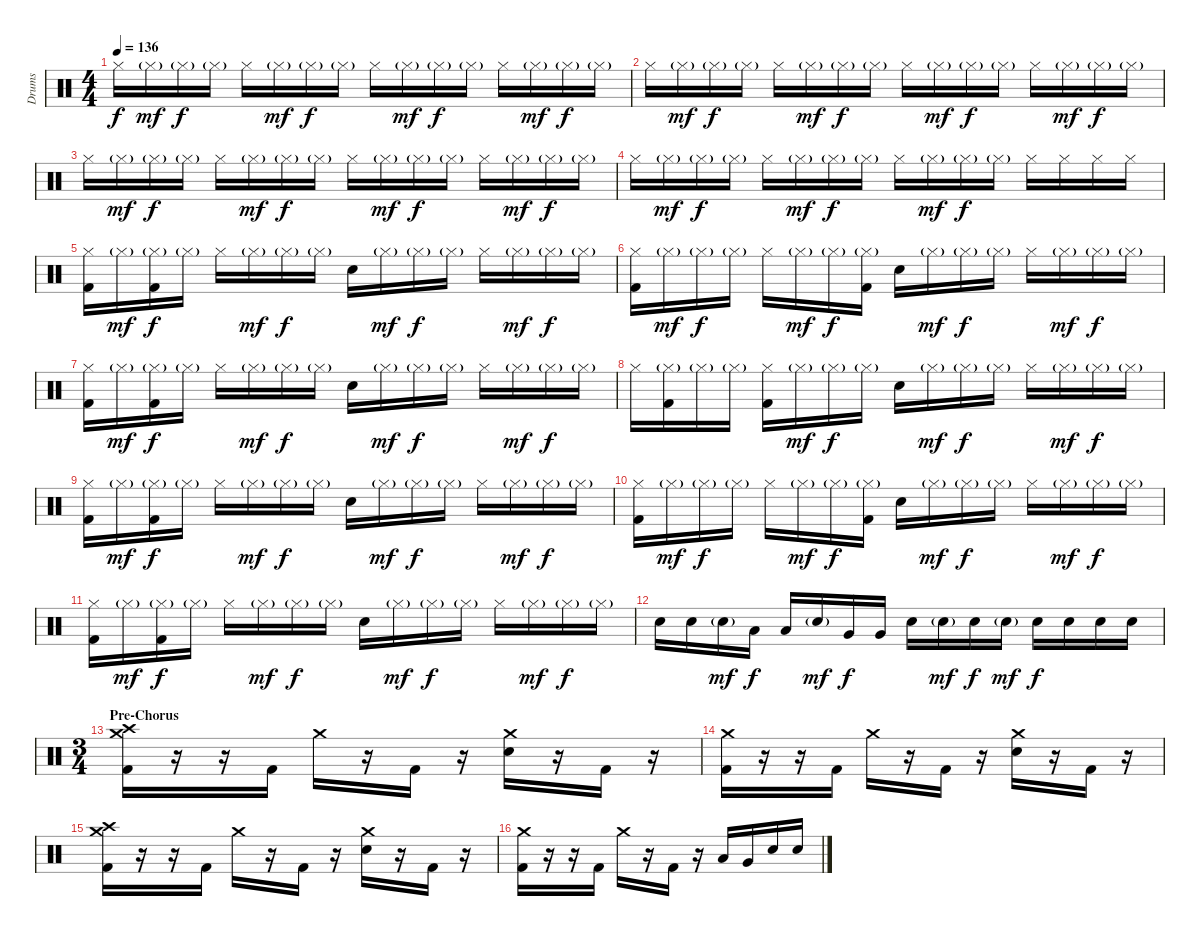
\track ("Drums" "Drums") {instrument percussion}
\staff {score}
\articulation defaults
\ts (4 4)
\tempo 136
\clef neutral
\ks c "Hi-Hat (closed)".16{dy f} "Hi-Hat (closed)"{g}.16{dy mf} "Hi-Hat (closed)"{g}.16{dy f} "Hi-Hat (closed)"{g}.16 "Hi-Hat (closed)".16 "Hi-Hat (closed)"{g}.16{dy mf} "Hi-Hat (closed)"{g}.16{dy f} "Hi-Hat (closed)"{g}.16 "Hi-Hat (closed)".16 "Hi-Hat (closed)"{g}.16{dy mf} "Hi-Hat (closed)"{g}.16{dy f} "Hi-Hat (closed)"{g}.16 "Hi-Hat (closed)".16 "Hi-Hat (closed)"{g}.16{dy mf} "Hi-Hat (closed)"{g}.16{dy f} "Hi-Hat (closed)"{g}.16
|
"Hi-Hat (closed)".16 "Hi-Hat (closed)"{g}.16{dy mf} "Hi-Hat (closed)"{g}.16{dy f} "Hi-Hat (closed)"{g}.16 "Hi-Hat (closed)".16 "Hi-Hat (closed)"{g}.16{dy mf} "Hi-Hat (closed)"{g}.16{dy f} "Hi-Hat (closed)"{g}.16 "Hi-Hat (closed)".16 "Hi-Hat (closed)"{g}.16{dy mf} "Hi-Hat (closed)"{g}.16{dy f} "Hi-Hat (closed)"{g}.16 "Hi-Hat (closed)".16 "Hi-Hat (closed)"{g}.16{dy mf} "Hi-Hat (closed)"{g}.16{dy f} "Hi-Hat (closed)"{g}.16 |
"Hi-Hat (closed)".16 "Hi-Hat (closed)"{g}.16{dy mf} "Hi-Hat (closed)"{g}.16{dy f} "Hi-Hat (closed)"{g}.16 "Hi-Hat (closed)".16 "Hi-Hat (closed)"{g}.16{dy mf} "Hi-Hat (closed)"{g}.16{dy f} "Hi-Hat (closed)"{g}.16 "Hi-Hat (closed)".16 "Hi-Hat (closed)"{g}.16{dy mf} "Hi-Hat (closed)"{g}.16{dy f} "Hi-Hat (closed)"{g}.16 "Hi-Hat (closed)".16 "Hi-Hat (closed)"{g}.16{dy mf} "Hi-Hat (closed)"{g}.16{dy f} "Hi-Hat (closed)"{g}.16 |
"Hi-Hat (closed)".16 "Hi-Hat (closed)"{g}.16{dy mf} "Hi-Hat (closed)"{g}.16{dy f} "Hi-Hat (closed)"{g}.16 "Hi-Hat (closed)".16 "Hi-Hat (closed)"{g}.16{dy mf} "Hi-Hat (closed)"{g}.16{dy f} "Hi-Hat (closed)"{g}.16 "Hi-Hat (closed)".16 "Hi-Hat (closed)"{g}.16{dy mf} "Hi-Hat (closed)"{g}.16{dy f} "Hi-Hat (closed)"{g}.16 "Hi-Hat (closed)".16 "Hi-Hat (closed)".16 "Hi-Hat (closed)".16 "Hi-Hat (closed)".16 |
("Hi-Hat (closed)" "Kick (hit) 2").16 "Hi-Hat (closed)"{g}.16{dy mf} ("Hi-Hat (closed)"{g} "Kick (hit) 2").16{dy f} "Hi-Hat (closed)"{g}.16 "Hi-Hat (closed)".16 "Hi-Hat (closed)"{g}.16{dy mf} "Hi-Hat (closed)"{g}.16{dy f} "Hi-Hat (closed)"{g}.16 "Electric Snare (hit)".16 "Hi-Hat (closed)"{g}.16{dy mf} "Hi-Hat (closed)"{g}.16{dy f} "Hi-Hat (closed)"{g}.16 "Hi-Hat (closed)".16 "Hi-Hat (closed)"{g}.16{dy mf} "Hi-Hat (closed)"{g}.16{dy f} "Hi-Hat (closed)"{g}.16 |
("Hi-Hat (closed)" "Kick (hit) 2").16 "Hi-Hat (closed)"{g}.16{dy mf} "Hi-Hat (closed)"{g}.16{dy f} "Hi-Hat (closed)"{g}.16 "Hi-Hat (closed)".16 "Hi-Hat (closed)"{g}.16{dy mf} "Hi-Hat (closed)"{g}.16{dy f} ("Hi-Hat (closed)"{g} "Kick (hit) 2").16 "Electric Snare (hit)".16 "Hi-Hat (closed)"{g}.16{dy mf} "Hi-Hat (closed)"{g}.16{dy f} "Hi-Hat (closed)"{g}.16 "Hi-Hat (closed)".16 "Hi-Hat (closed)"{g}.16{dy mf} "Hi-Hat (closed)"{g}.16{dy f} "Hi-Hat (closed)"{g}.16 |
("Hi-Hat (closed)" "Kick (hit) 2").16 "Hi-Hat (closed)"{g}.16{dy mf} ("Hi-Hat (closed)"{g} "Kick (hit) 2").16{dy f} "Hi-Hat (closed)"{g}.16 "Hi-Hat (closed)".16 "Hi-Hat (closed)"{g}.16{dy mf} "Hi-Hat (closed)"{g}.16{dy f} "Hi-Hat (closed)"{g}.16 "Electric Snare (hit)".16 "Hi-Hat (closed)"{g}.16{dy mf} "Hi-Hat (closed)"{g}.16{dy f} "Hi-Hat (closed)"{g}.16 "Hi-Hat (closed)".16 "Hi-Hat (closed)"{g}.16{dy mf} "Hi-Hat (closed)"{g}.16{dy f} "Hi-Hat (closed)"{g}.16 |
"Hi-Hat (closed)".16 ("Hi-Hat (closed)"{g} "Kick (hit) 2").16 "Hi-Hat (closed)"{g}.16 "Hi-Hat (closed)"{g}.16 ("Hi-Hat (closed)" "Kick (hit) 2").16 "Hi-Hat (closed)"{g}.16{dy mf} "Hi-Hat (closed)"{g}.16{dy f} "Hi-Hat (closed)"{g}.16 "Electric Snare (hit)".16 "Hi-Hat (closed)"{g}.16{dy mf} "Hi-Hat (closed)"{g}.16{dy f} "Hi-Hat (closed)"{g}.16 "Hi-Hat (closed)".16 "Hi-Hat (closed)"{g}.16{dy mf} "Hi-Hat (closed)"{g}.16{dy f} "Hi-Hat (closed)"{g}.16 |
("Hi-Hat (closed)" "Kick (hit) 2").16 "Hi-Hat (closed)"{g}.16{dy mf} ("Hi-Hat (closed)"{g} "Kick (hit) 2").16{dy f} "Hi-Hat (closed)"{g}.16 "Hi-Hat (closed)".16 "Hi-Hat (closed)"{g}.16{dy mf} "Hi-Hat (closed)"{g}.16{dy f} "Hi-Hat (closed)"{g}.16 "Electric Snare (hit)".16 "Hi-Hat (closed)"{g}.16{dy mf} "Hi-Hat (closed)"{g}.16{dy f} "Hi-Hat (closed)"{g}.16 "Hi-Hat (closed)".16 "Hi-Hat (closed)"{g}.16{dy mf} "Hi-Hat (closed)"{g}.16{dy f} "Hi-Hat (closed)"{g}.16 |
("Hi-Hat (closed)" "Kick (hit) 2").16 "Hi-Hat (closed)"{g}.16{dy mf} "Hi-Hat (closed)"{g}.16{dy f} "Hi-Hat (closed)"{g}.16 "Hi-Hat (closed)".16 "Hi-Hat (closed)"{g}.16{dy mf} "Hi-Hat (closed)"{g}.16{dy f} ("Hi-Hat (closed)"{g} "Kick (hit) 2").16 "Electric Snare (hit)".16 "Hi-Hat (closed)"{g}.16{dy mf} "Hi-Hat (closed)"{g}.16{dy f} "Hi-Hat (closed)"{g}.16 "Hi-Hat (closed)".16 "Hi-Hat (closed)"{g}.16{dy mf} "Hi-Hat (closed)"{g}.16{dy f} "Hi-Hat (closed)"{g}.16 |
("Hi-Hat (closed)" "Kick (hit) 2").16 "Hi-Hat (closed)"{g}.16{dy mf} ("Hi-Hat (closed)"{g} "Kick (hit) 2").16{dy f} "Hi-Hat (closed)"{g}.16 "Hi-Hat (closed)".16 "Hi-Hat (closed)"{g}.16{dy mf} "Hi-Hat (closed)"{g}.16{dy f} "Hi-Hat (closed)"{g}.16 "Electric Snare (hit)".16 "Hi-Hat (closed)"{g}.16{dy mf} "Hi-Hat (closed)"{g}.16{dy f} "Hi-Hat (closed)"{g}.16 "Hi-Hat (closed)".16 "Hi-Hat (closed)"{g}.16{dy mf} "Hi-Hat (closed)"{g}.16{dy f} "Hi-Hat (closed)"{g}.16 |
"Electric Snare (hit)".16 "Electric Snare (hit)".16 "Snare (hit) 2"{g}.16{dy mf} "Low Tom (hit)".16{dy f} "Low Tom (hit)".16 "Snare (hit) 2"{g}.16{dy mf} "Very Low Tom (hit)".16{dy f} "Very Low Tom (hit)".16 "Electric Snare (hit)".16 "Snare (hit) 2"{g}.16{dy mf} "Electric Snare (hit)".16{dy f} "Snare (hit) 2"{g}.16{dy mf} "Electric Snare (hit)".16{dy f} "Electric Snare (hit)".16 "Electric Snare (hit)".16 "Electric Snare (hit)".16 |
\ts (3 4)
\section ("" "Pre-Chorus")
("Crash medium (hit)" "Crash high (hit)" "Kick (hit) 2").16 r.16 r.16 "Kick (hit) 2".16 "Crash medium (hit)".16 r.16 "Kick (hit) 2".16 r.16 ("Crash medium (hit)" "Electric Snare (hit)").16 r.16 "Kick (hit) 2".16 r.16 |
("Crash medium (hit)" "Kick (hit) 2").16 r.16 r.16 "Kick (hit) 2".16 "Crash medium (hit)".16 r.16 "Kick (hit) 2".16 r.16 ("Crash medium (hit)" "Electric Snare (hit)").16 r.16 "Kick (hit) 2".16 r.16 |
("Crash medium (hit)" "Crash high (hit)" "Kick (hit) 2").16 r.16 r.16 "Kick (hit) 2".16 "Crash medium (hit)".16 r.16 "Kick (hit) 2".16 r.16 ("Crash medium (hit)" "Electric Snare (hit)").16 r.16 "Kick (hit) 2".16 r.16 |
("Crash medium (hit)" "Kick (hit) 2").16 r.16 r.16 "Kick (hit) 2".16 "Crash medium (hit)".16 r.16 "Kick (hit) 2".16 r.16 "Low Tom (hit)".16 "Very Low Tom (hit)".16 "Electric Snare (hit)".16 "Electric Snare (hit)".16
